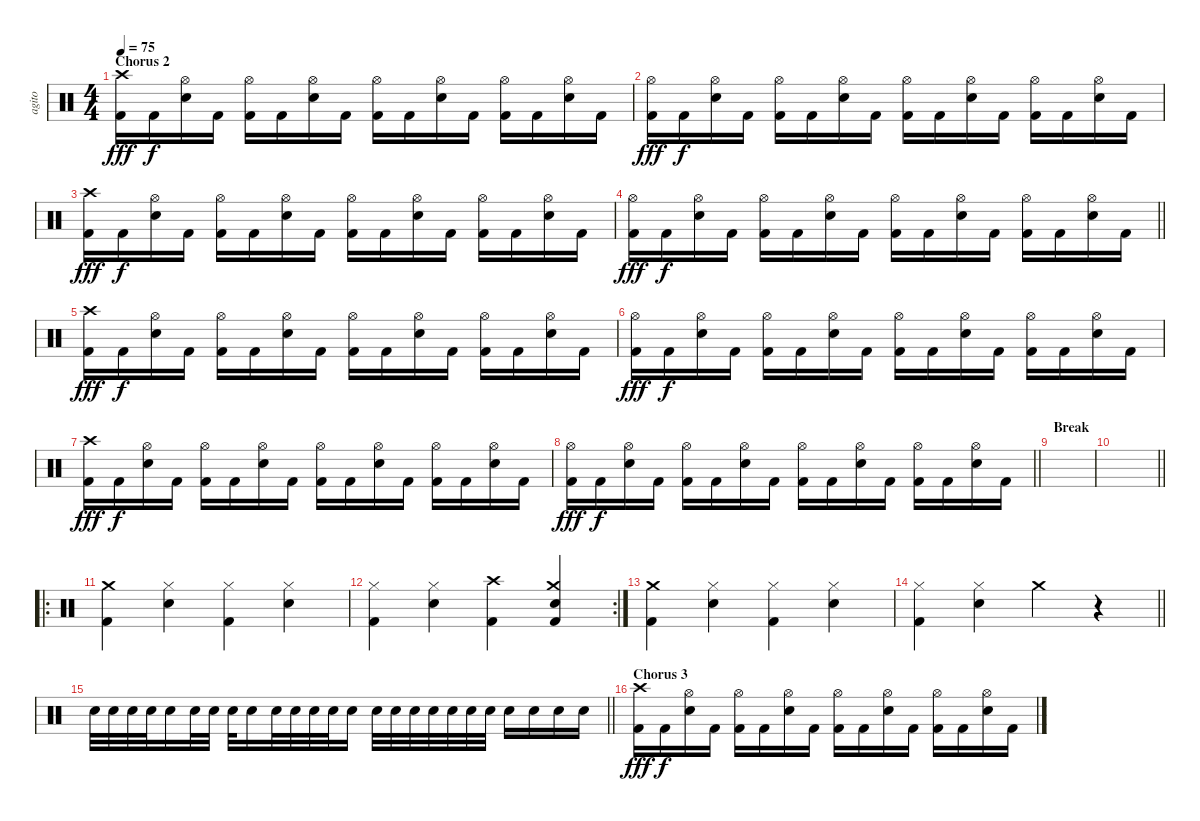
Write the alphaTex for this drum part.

\track ("agito" "agito") {instrument percussion}
\staff {score}
\articulation defaults
\ts (4 4)
\section ("" "Chorus 2")
\tempo 75
\clef neutral
\ks c
("Crash high (hit)" "Kick (hit) 2").16{dy fff} "Kick (hit) 2".16{dy f} ("Hi-Hat (open)" "Snare (hit) 2").16 "Kick (hit) 2".16 ("Hi-Hat (open)" "Kick (hit) 2").16 "Kick (hit) 2".16 ("Hi-Hat (open)" "Snare (hit) 2").16 "Kick (hit) 2".16 ("Hi-Hat (open)" "Kick (hit) 2").16 "Kick (hit) 2".16 ("Hi-Hat (open)" "Snare (hit) 2").16 "Kick (hit) 2".16 ("Hi-Hat (open)" "Kick (hit) 2").16 "Kick (hit) 2".16 ("Hi-Hat (open)" "Snare (hit) 2").16 "Kick (hit) 2".16 |
("Hi-Hat (open)" "Kick (hit) 2").16{dy fff} "Kick (hit) 2".16{dy f} ("Hi-Hat (open)" "Snare (hit) 2").16 "Kick (hit) 2".16 ("Hi-Hat (open)" "Kick (hit) 2").16 "Kick (hit) 2".16 ("Hi-Hat (open)" "Snare (hit) 2").16 "Kick (hit) 2".16 ("Hi-Hat (open)" "Kick (hit) 2").16 "Kick (hit) 2".16 ("Hi-Hat (open)" "Snare (hit) 2").16 "Kick (hit) 2".16 ("Hi-Hat (open)" "Kick (hit) 2").16 "Kick (hit) 2".16 ("Hi-Hat (open)" "Snare (hit) 2").16 "Kick (hit) 2".16 |
("Crash high (hit)" "Kick (hit) 2").16{dy fff} "Kick (hit) 2".16{dy f} ("Hi-Hat (open)" "Snare (hit) 2").16 "Kick (hit) 2".16 ("Hi-Hat (open)" "Kick (hit) 2").16 "Kick (hit) 2".16 ("Hi-Hat (open)" "Snare (hit) 2").16 "Kick (hit) 2".16 ("Hi-Hat (open)" "Kick (hit) 2").16 "Kick (hit) 2".16 ("Hi-Hat (open)" "Snare (hit) 2").16 "Kick (hit) 2".16 ("Hi-Hat (open)" "Kick (hit) 2").16 "Kick (hit) 2".16 ("Hi-Hat (open)" "Snare (hit) 2").16 "Kick (hit) 2".16 |
\barLineRight lightlight
("Hi-Hat (open)" "Kick (hit) 2").16{dy fff} "Kick (hit) 2".16{dy f} ("Hi-Hat (open)" "Snare (hit) 2").16 "Kick (hit) 2".16 ("Hi-Hat (open)" "Kick (hit) 2").16 "Kick (hit) 2".16 ("Hi-Hat (open)" "Snare (hit) 2").16 "Kick (hit) 2".16 ("Hi-Hat (open)" "Kick (hit) 2").16 "Kick (hit) 2".16 ("Hi-Hat (open)" "Snare (hit) 2").16 "Kick (hit) 2".16 ("Hi-Hat (open)" "Kick (hit) 2").16 "Kick (hit) 2".16 ("Hi-Hat (open)" "Snare (hit) 2").16 "Kick (hit) 2".16 |
("Crash high (hit)" "Kick (hit) 2").16{dy fff} "Kick (hit) 2".16{dy f} ("Hi-Hat (open)" "Snare (hit) 2").16 "Kick (hit) 2".16 ("Hi-Hat (open)" "Kick (hit) 2").16 "Kick (hit) 2".16 ("Hi-Hat (open)" "Snare (hit) 2").16 "Kick (hit) 2".16 ("Hi-Hat (open)" "Kick (hit) 2").16 "Kick (hit) 2".16 ("Hi-Hat (open)" "Snare (hit) 2").16 "Kick (hit) 2".16 ("Hi-Hat (open)" "Kick (hit) 2").16 "Kick (hit) 2".16 ("Hi-Hat (open)" "Snare (hit) 2").16 "Kick (hit) 2".16 |
("Hi-Hat (open)" "Kick (hit) 2").16{dy fff} "Kick (hit) 2".16{dy f} ("Hi-Hat (open)" "Snare (hit) 2").16 "Kick (hit) 2".16 ("Hi-Hat (open)" "Kick (hit) 2").16 "Kick (hit) 2".16 ("Hi-Hat (open)" "Snare (hit) 2").16 "Kick (hit) 2".16 ("Hi-Hat (open)" "Kick (hit) 2").16 "Kick (hit) 2".16 ("Hi-Hat (open)" "Snare (hit) 2").16 "Kick (hit) 2".16 ("Hi-Hat (open)" "Kick (hit) 2").16 "Kick (hit) 2".16 ("Hi-Hat (open)" "Snare (hit) 2").16 "Kick (hit) 2".16 |
("Crash high (hit)" "Kick (hit) 2").16{dy fff} "Kick (hit) 2".16{dy f} ("Hi-Hat (open)" "Snare (hit) 2").16 "Kick (hit) 2".16 ("Hi-Hat (open)" "Kick (hit) 2").16 "Kick (hit) 2".16 ("Hi-Hat (open)" "Snare (hit) 2").16 "Kick (hit) 2".16 ("Hi-Hat (open)" "Kick (hit) 2").16 "Kick (hit) 2".16 ("Hi-Hat (open)" "Snare (hit) 2").16 "Kick (hit) 2".16 ("Hi-Hat (open)" "Kick (hit) 2").16 "Kick (hit) 2".16 ("Hi-Hat (open)" "Snare (hit) 2").16 "Kick (hit) 2".16 |
\barLineRight lightlight
("Hi-Hat (open)" "Kick (hit) 2").16{dy fff} "Kick (hit) 2".16{dy f} ("Hi-Hat (open)" "Snare (hit) 2").16 "Kick (hit) 2".16 ("Hi-Hat (open)" "Kick (hit) 2").16 "Kick (hit) 2".16 ("Hi-Hat (open)" "Snare (hit) 2").16 "Kick (hit) 2".16 ("Hi-Hat (open)" "Kick (hit) 2").16 "Kick (hit) 2".16 ("Hi-Hat (open)" "Snare (hit) 2").16 "Kick (hit) 2".16 ("Hi-Hat (open)" "Kick (hit) 2").16 "Kick (hit) 2".16 ("Hi-Hat (open)" "Snare (hit) 2").16 "Kick (hit) 2".16 |
\section ("" "Break")
|
\barLineRight lightlight
|
\ro
("Crash medium (hit)" "Kick (hit) 2").4 ("Hi-Hat (closed)" "Electric Snare (hit)").4 ("Hi-Hat (closed)" "Kick (hit) 2").4 ("Hi-Hat (closed)" "Electric Snare (hit)").4 |
\rc 2
("Hi-Hat (closed)" "Kick (hit) 2").4 ("Hi-Hat (closed)" "Electric Snare (hit)").4 ("Crash high (hit)" "Kick (hit) 2").4 ("Crash medium (hit)" "Electric Snare (hit)" "Kick (hit) 2").4 |
("Crash medium (hit)" "Kick (hit) 2").4 ("Hi-Hat (closed)" "Electric Snare (hit)").4 ("Hi-Hat (closed)" "Kick (hit) 2").4 ("Hi-Hat (closed)" "Electric Snare (hit)").4 |
\barLineRight lightlight
("Hi-Hat (closed)" "Kick (hit) 2").4 ("Hi-Hat (closed)" "Electric Snare (hit)").4 "Crash medium (hit)".4 r.4 |
\barLineRight lightlight "Electric Snare (hit)".32 "Electric Snare (hit)".32 "Electric Snare (hit)".32 "Electric Snare (hit)".32 "Electric Snare (hit)".16 "Electric Snare (hit)".32 "Electric Snare (hit)".32 "Electric Snare (hit)".32 "Electric Snare (hit)".16 "Electric Snare (hit)".32 "Electric Snare (hit)".32 "Electric Snare (hit)".32 "Electric Snare (hit)".32 "Electric Snare (hit)".16 "Electric Snare (hit)".32 "Electric Snare (hit)".32 "Electric Snare (hit)".32 "Electric Snare (hit)".32 "Electric Snare (hit)".32 "Electric Snare (hit)".32 "Electric Snare (hit)".32 "Electric Snare (hit)".16 "Electric Snare (hit)".16 "Electric Snare (hit)".16 "Electric Snare (hit)".16
|
\section ("" "Chorus 3")
("Crash high (hit)" "Kick (hit) 2").16{dy fff} "Kick (hit) 2".16{dy f} ("Hi-Hat (open)" "Snare (hit) 2").16 "Kick (hit) 2".16 ("Hi-Hat (open)" "Kick (hit) 2").16 "Kick (hit) 2".16 ("Hi-Hat (open)" "Snare (hit) 2").16 "Kick (hit) 2".16 ("Hi-Hat (open)" "Kick (hit) 2").16 "Kick (hit) 2".16 ("Hi-Hat (open)" "Snare (hit) 2").16 "Kick (hit) 2".16 ("Hi-Hat (open)" "Kick (hit) 2").16 "Kick (hit) 2".16 ("Hi-Hat (open)" "Snare (hit) 2").16 "Kick (hit) 2".16
